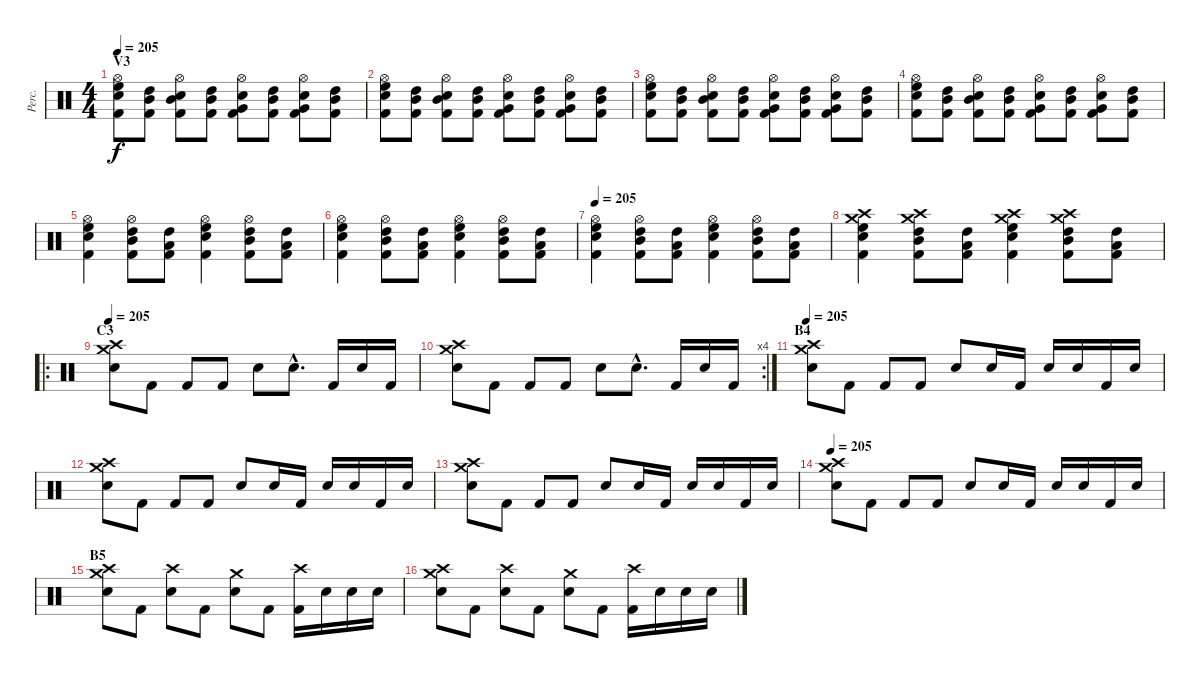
\track ("Perc." "Perc.") {instrument percussion}
\staff {score}
\articulation defaults
\ts (4 4)
\section ("" "V3")
\tempo 205
\clef neutral
\ks c
("Hi-Hat (open)" "Kick (hit) 2" "High Floor Tom (hit)" "Snare (hit) 2").8{dy f} ("Kick (hit) 2" "High Tom (hit)" "Mid Tom (hit)").8 ("Hi-Hat (open)" "Kick (hit) 2" "Mid Tom (hit)" "Snare (hit) 2").8 ("Kick (hit) 2" "High Tom (hit)" "Mid Tom (hit)").8 ("Hi-Hat (open)" "Kick (hit) 2" "Very Low Tom (hit)" "Snare (hit) 2").8 ("Kick (hit) 2" "High Tom (hit)" "Mid Tom (hit)").8 ("Hi-Hat (open)" "Kick (hit) 2" "Very Low Tom (hit)" "Snare (hit) 2").8 ("Kick (hit) 2" "High Tom (hit)" "Mid Tom (hit)").8 |
("Hi-Hat (open)" "Kick (hit) 2" "High Floor Tom (hit)" "Snare (hit) 2").8 ("Kick (hit) 2" "High Tom (hit)" "Mid Tom (hit)").8 ("Hi-Hat (open)" "Kick (hit) 2" "Mid Tom (hit)" "Snare (hit) 2").8 ("Kick (hit) 2" "High Tom (hit)" "Mid Tom (hit)").8 ("Hi-Hat (open)" "Kick (hit) 2" "Very Low Tom (hit)" "Snare (hit) 2").8 ("Kick (hit) 2" "High Tom (hit)" "Mid Tom (hit)").8 ("Hi-Hat (open)" "Kick (hit) 2" "Very Low Tom (hit)" "Snare (hit) 2").8 ("Kick (hit) 2" "High Tom (hit)" "Mid Tom (hit)").8 |
("Hi-Hat (open)" "Kick (hit) 2" "High Floor Tom (hit)" "Snare (hit) 2").8 ("Kick (hit) 2" "High Tom (hit)" "Mid Tom (hit)").8 ("Hi-Hat (open)" "Kick (hit) 2" "Mid Tom (hit)" "Snare (hit) 2").8 ("Kick (hit) 2" "High Tom (hit)" "Mid Tom (hit)").8 ("Hi-Hat (open)" "Kick (hit) 2" "Very Low Tom (hit)" "Snare (hit) 2").8 ("Kick (hit) 2" "High Tom (hit)" "Mid Tom (hit)").8 ("Hi-Hat (open)" "Kick (hit) 2" "Very Low Tom (hit)" "Snare (hit) 2").8 ("Kick (hit) 2" "High Tom (hit)" "Mid Tom (hit)").8 |
("Hi-Hat (open)" "Kick (hit) 2" "High Floor Tom (hit)" "Snare (hit) 2").8 ("Kick (hit) 2" "High Tom (hit)" "Mid Tom (hit)").8 ("Hi-Hat (open)" "Kick (hit) 2" "Mid Tom (hit)" "Snare (hit) 2").8 ("Kick (hit) 2" "High Tom (hit)" "Mid Tom (hit)").8 ("Hi-Hat (open)" "Kick (hit) 2" "Very Low Tom (hit)" "Snare (hit) 2").8 ("Kick (hit) 2" "High Tom (hit)" "Mid Tom (hit)").8 ("Hi-Hat (open)" "Kick (hit) 2" "Very Low Tom (hit)" "Snare (hit) 2").8 ("Kick (hit) 2" "High Tom (hit)" "Mid Tom (hit)").8 |
("Hi-Hat (open)" "Kick (hit) 2" "High Floor Tom (hit)" "Snare (hit) 2").4 ("Hi-Hat (open)" "Kick (hit) 2" "High Tom (hit)" "Mid Tom (hit)").8 ("Kick (hit) 2" "High Tom (hit)" "Low Tom (hit)").8 ("Hi-Hat (open)" "Kick (hit) 2" "High Floor Tom (hit)" "Snare (hit) 2").4 ("Hi-Hat (open)" "Kick (hit) 2" "High Tom (hit)" "Mid Tom (hit)").8 ("Kick (hit) 2" "High Tom (hit)" "Low Tom (hit)").8 |
("Hi-Hat (open)" "Kick (hit) 2" "High Floor Tom (hit)" "Snare (hit) 2").4 ("Hi-Hat (open)" "Kick (hit) 2" "High Tom (hit)" "Mid Tom (hit)").8 ("Kick (hit) 2" "High Tom (hit)" "Low Tom (hit)").8 ("Hi-Hat (open)" "Kick (hit) 2" "High Floor Tom (hit)" "Snare (hit) 2").4 ("Hi-Hat (open)" "Kick (hit) 2" "High Tom (hit)" "Mid Tom (hit)").8 ("Kick (hit) 2" "High Tom (hit)" "Low Tom (hit)").8 |
\tempo 205
("Hi-Hat (open)" "Kick (hit) 2" "High Floor Tom (hit)" "Snare (hit) 2").4 ("Hi-Hat (open)" "Kick (hit) 2" "High Tom (hit)" "Mid Tom (hit)").8 ("Kick (hit) 2" "High Tom (hit)" "Low Tom (hit)").8 ("Hi-Hat (open)" "Kick (hit) 2" "High Floor Tom (hit)" "Snare (hit) 2").4 ("Hi-Hat (open)" "Kick (hit) 2" "High Tom (hit)" "Mid Tom (hit)").8 ("Kick (hit) 2" "High Tom (hit)" "Low Tom (hit)").8 |
("Crash medium (hit)" "Crash high (hit)" "Kick (hit) 2" "High Floor Tom (hit)" "Snare (hit) 2").4 ("Crash medium (hit)" "Crash high (hit)" "Kick (hit) 2" "High Tom (hit)" "Mid Tom (hit)").8 ("Kick (hit) 2" "High Tom (hit)" "Low Tom (hit)").8 ("Crash medium (hit)" "Crash high (hit)" "Kick (hit) 2" "High Floor Tom (hit)" "Snare (hit) 2").4 ("Crash medium (hit)" "Crash high (hit)" "Kick (hit) 2" "High Tom (hit)" "Mid Tom (hit)").8 ("Kick (hit) 2" "High Tom (hit)" "Low Tom (hit)").8 |
\ro
\section ("" "C3")
\tempo 205
("Crash medium (hit)" "Crash high (hit)" "Snare (hit) 2").8 "Kick (hit) 2".8 "Kick (hit) 2".8 "Kick (hit) 2".8 "Snare (hit) 2".8 "Snare (hit) 2"{hac}.8{d} "Kick (hit) 2".16 "Snare (hit) 2".16 "Kick (hit) 2".16 |
\rc 4
("Crash medium (hit)" "Crash high (hit)" "Snare (hit) 2").8 "Kick (hit) 2".8 "Kick (hit) 2".8 "Kick (hit) 2".8 "Snare (hit) 2".8 "Snare (hit) 2"{hac}.8{d} "Kick (hit) 2".16 "Snare (hit) 2".16 "Kick (hit) 2".16 |
\section ("" "B4")
\tempo 205
("Crash medium (hit)" "Crash high (hit)" "Snare (hit) 2").8 "Kick (hit) 2".8 "Kick (hit) 2".8 "Kick (hit) 2".8 "Snare (hit) 2".8 "Snare (hit) 2".16 "Kick (hit) 2".16 "Snare (hit) 2".16 "Snare (hit) 2".16 "Kick (hit) 2".16 "Snare (hit) 2".16 |
("Crash medium (hit)" "Crash high (hit)" "Snare (hit) 2").8 "Kick (hit) 2".8 "Kick (hit) 2".8 "Kick (hit) 2".8 "Snare (hit) 2".8 "Snare (hit) 2".16 "Kick (hit) 2".16 "Snare (hit) 2".16 "Snare (hit) 2".16 "Kick (hit) 2".16 "Snare (hit) 2".16 |
("Crash medium (hit)" "Crash high (hit)" "Snare (hit) 2").8 "Kick (hit) 2".8 "Kick (hit) 2".8 "Kick (hit) 2".8 "Snare (hit) 2".8 "Snare (hit) 2".16 "Kick (hit) 2".16 "Snare (hit) 2".16 "Snare (hit) 2".16 "Kick (hit) 2".16 "Snare (hit) 2".16 |
\tempo 205
("Crash medium (hit)" "Crash high (hit)" "Snare (hit) 2").8 "Kick (hit) 2".8 "Kick (hit) 2".8 "Kick (hit) 2".8 "Snare (hit) 2".8 "Snare (hit) 2".16 "Kick (hit) 2".16 "Snare (hit) 2".16 "Snare (hit) 2".16 "Kick (hit) 2".16 "Snare (hit) 2".16 |
\section ("" "B5")
("Crash medium (hit)" "Crash high (hit)" "Snare (hit) 2").8 "Kick (hit) 2".8 ("Crash high (hit)" "Snare (hit) 2").8 "Kick (hit) 2".8 ("Crash medium (hit)" "Snare (hit) 2").8 "Kick (hit) 2".8 ("Crash high (hit)" "Kick (hit) 2").16 "Snare (hit) 2".16 "Snare (hit) 2".16 "Snare (hit) 2".16 |
("Crash medium (hit)" "Crash high (hit)" "Snare (hit) 2").8 "Kick (hit) 2".8 ("Crash high (hit)" "Snare (hit) 2").8 "Kick (hit) 2".8 ("Crash medium (hit)" "Snare (hit) 2").8 "Kick (hit) 2".8 ("Crash high (hit)" "Kick (hit) 2").16 "Snare (hit) 2".16 "Snare (hit) 2".16 "Snare (hit) 2".16
